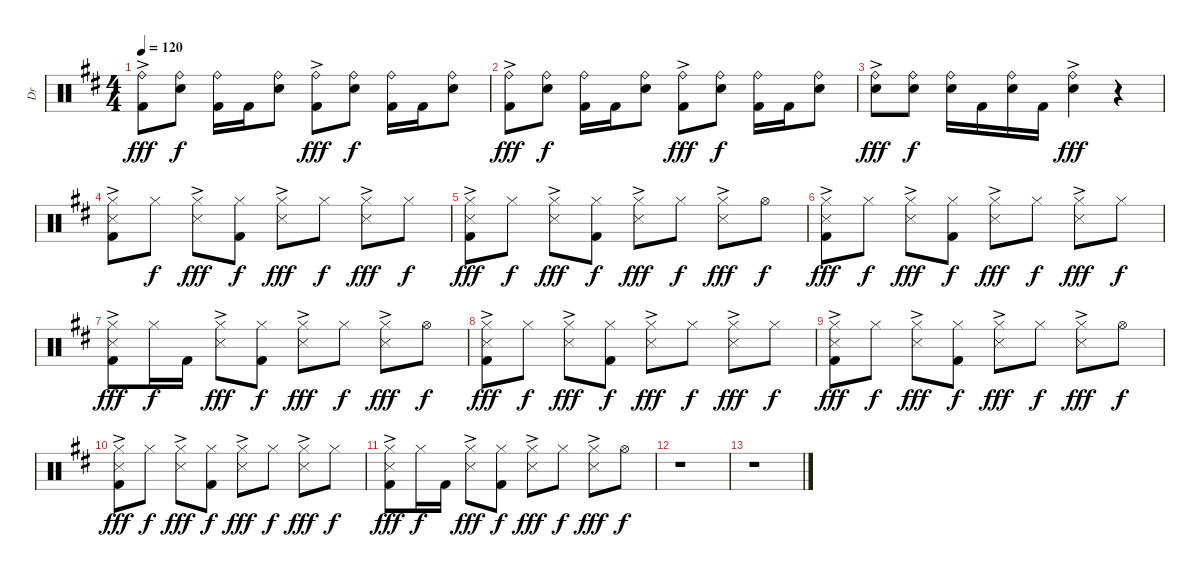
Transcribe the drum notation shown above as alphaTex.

\track ("Dr" "Dr") {instrument percussion}
\staff {score}
\articulation defaults
\ts (4 4)
\tempo 120
\clef neutral
\ks d
("Ride (bell)"{ac} "Kick (hit) 2"{ac}).8{dy fff} ("Ride (bell)" "Electric Snare (hit)").8{dy f} ("Ride (bell)" "Kick (hit) 2").16 "Kick (hit) 2".16 ("Ride (bell)" "Electric Snare (hit)").8 ("Ride (bell)"{ac} "Kick (hit) 2"{ac}).8{dy fff} ("Ride (bell)" "Electric Snare (hit)").8{dy f} ("Ride (bell)" "Kick (hit) 2").16 "Kick (hit) 2".16 ("Ride (bell)" "Electric Snare (hit)").8 |
("Ride (bell)"{ac} "Kick (hit) 2"{ac}).8{dy fff} ("Ride (bell)" "Electric Snare (hit)").8{dy f} ("Ride (bell)" "Kick (hit) 2").16 "Kick (hit) 2".16 ("Ride (bell)" "Electric Snare (hit)").8 ("Ride (bell)"{ac} "Kick (hit) 2"{ac}).8{dy fff} ("Ride (bell)" "Electric Snare (hit)").8{dy f} ("Ride (bell)" "Kick (hit) 2").16 "Kick (hit) 2".16 ("Ride (bell)" "Electric Snare (hit)").8 |
("Ride (bell)"{ac} "Electric Snare (hit)"{ac}).8{dy fff} ("Ride (bell)" "Electric Snare (hit)").8{dy f} ("Ride (bell)" "Electric Snare (hit)").16 "Kick (hit) 2".16 ("Ride (bell)" "Electric Snare (hit)").16 "Kick (hit) 2".16 ("Ride (bell)"{ac} "Electric Snare (hit)"{ac}).4{dy fff} r.4 |
("Hi-Hat (closed)" "Snare (side stick) 3"{ac} "Kick (hit) 2").8 "Hi-Hat (closed)".8{dy f} ("Hi-Hat (closed)" "Snare (side stick) 3"{ac}).8{dy fff} ("Hi-Hat (closed)" "Kick (hit) 2").8{dy f} ("Hi-Hat (closed)" "Snare (side stick) 3"{ac}).8{dy fff} "Hi-Hat (closed)".8{dy f} ("Hi-Hat (closed)" "Snare (side stick) 3"{ac}).8{dy fff} "Hi-Hat (closed)".8{dy f} |
("Hi-Hat (closed)" "Snare (side stick) 3"{ac} "Kick (hit) 2").8{dy fff} "Hi-Hat (closed)".8{dy f} ("Hi-Hat (closed)" "Snare (side stick) 3"{ac}).8{dy fff} ("Hi-Hat (closed)" "Kick (hit) 2").8{dy f} ("Hi-Hat (closed)" "Snare (side stick) 3"{ac}).8{dy fff} "Hi-Hat (closed)".8{dy f} ("Hi-Hat (closed)" "Snare (side stick) 3"{ac}).8{dy fff} "Hi-Hat (open)".8{dy f} |
("Hi-Hat (closed)" "Snare (side stick) 3"{ac} "Kick (hit) 2").8{dy fff} "Hi-Hat (closed)".8{dy f} ("Hi-Hat (closed)" "Snare (side stick) 3"{ac}).8{dy fff} ("Hi-Hat (closed)" "Kick (hit) 2").8{dy f} ("Hi-Hat (closed)" "Snare (side stick) 3"{ac}).8{dy fff} "Hi-Hat (closed)".8{dy f} ("Hi-Hat (closed)" "Snare (side stick) 3"{ac}).8{dy fff} "Hi-Hat (closed)".8{dy f} |
("Hi-Hat (closed)" "Snare (side stick) 3"{ac} "Kick (hit) 2").8{dy fff} "Hi-Hat (closed)".16{dy f} "Kick (hit) 2".16 ("Hi-Hat (closed)" "Snare (side stick) 3"{ac}).8{dy fff} ("Hi-Hat (closed)" "Kick (hit) 2").8{dy f} ("Hi-Hat (closed)" "Snare (side stick) 3"{ac}).8{dy fff} "Hi-Hat (closed)".8{dy f} ("Hi-Hat (closed)" "Snare (side stick) 3"{ac}).8{dy fff} "Hi-Hat (open)".8{dy f} |
("Hi-Hat (closed)" "Snare (side stick) 3"{ac} "Kick (hit) 2").8{dy fff} "Hi-Hat (closed)".8{dy f} ("Hi-Hat (closed)" "Snare (side stick) 3"{ac}).8{dy fff} ("Hi-Hat (closed)" "Kick (hit) 2").8{dy f} ("Hi-Hat (closed)" "Snare (side stick) 3"{ac}).8{dy fff} "Hi-Hat (closed)".8{dy f} ("Hi-Hat (closed)" "Snare (side stick) 3"{ac}).8{dy fff} "Hi-Hat (closed)".8{dy f} |
("Hi-Hat (closed)" "Snare (side stick) 3"{ac} "Kick (hit) 2").8{dy fff} "Hi-Hat (closed)".8{dy f} ("Hi-Hat (closed)" "Snare (side stick) 3"{ac}).8{dy fff} ("Hi-Hat (closed)" "Kick (hit) 2").8{dy f} ("Hi-Hat (closed)" "Snare (side stick) 3"{ac}).8{dy fff} "Hi-Hat (closed)".8{dy f} ("Hi-Hat (closed)" "Snare (side stick) 3"{ac}).8{dy fff} "Hi-Hat (open)".8{dy f} |
("Hi-Hat (closed)" "Snare (side stick) 3"{ac} "Kick (hit) 2").8{dy fff} "Hi-Hat (closed)".8{dy f} ("Hi-Hat (closed)" "Snare (side stick) 3"{ac}).8{dy fff} ("Hi-Hat (closed)" "Kick (hit) 2").8{dy f} ("Hi-Hat (closed)" "Snare (side stick) 3"{ac}).8{dy fff} "Hi-Hat (closed)".8{dy f} ("Hi-Hat (closed)" "Snare (side stick) 3"{ac}).8{dy fff} "Hi-Hat (closed)".8{dy f} |
("Hi-Hat (closed)" "Snare (side stick) 3"{ac} "Kick (hit) 2").8{dy fff} "Hi-Hat (closed)".16{dy f} "Kick (hit) 2".16 ("Hi-Hat (closed)" "Snare (side stick) 3"{ac}).8{dy fff} ("Hi-Hat (closed)" "Kick (hit) 2").8{dy f} ("Hi-Hat (closed)" "Snare (side stick) 3"{ac}).8{dy fff} "Hi-Hat (closed)".8{dy f} ("Hi-Hat (closed)" "Snare (side stick) 3"{ac}).8{dy fff} "Hi-Hat (open)".8{dy f} |
r.1 |
r.1
